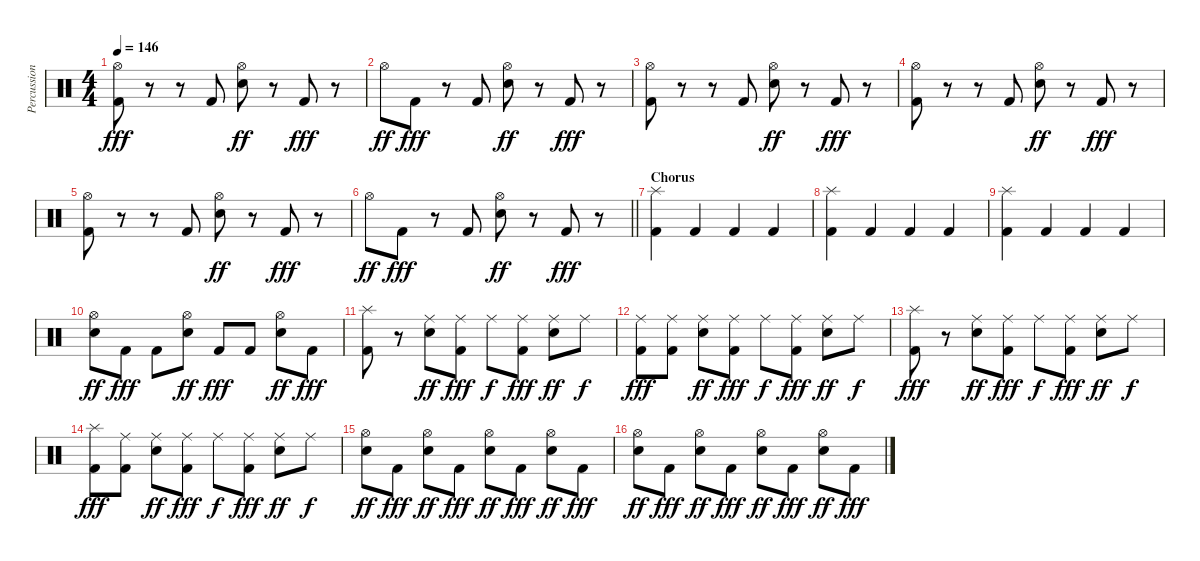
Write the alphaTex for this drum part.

\track ("Percussions" "Percussion") {instrument percussion}
\staff {score}
\articulation defaults
\ts (4 4)
\tempo 146
\clef neutral
\ks c
("Hi-Hat (open)" "Kick (hit) 2").8{dy fff} r.8 r.8 "Kick (hit) 2".8 ("Hi-Hat (open)" "Snare (hit) 2").8{dy ff} r.8 "Kick (hit) 2".8{dy fff} r.8 |
"Hi-Hat (open)".8{dy ff} "Kick (hit) 2".8{dy fff} r.8 "Kick (hit) 2".8 ("Hi-Hat (open)" "Snare (hit) 2").8{dy ff} r.8 "Kick (hit) 2".8{dy fff} r.8 |
("Hi-Hat (open)" "Kick (hit) 2").8 r.8 r.8 "Kick (hit) 2".8 ("Hi-Hat (open)" "Snare (hit) 2").8{dy ff} r.8 "Kick (hit) 2".8{dy fff} r.8 |
("Hi-Hat (open)" "Kick (hit) 2").8 r.8 r.8 "Kick (hit) 2".8 ("Hi-Hat (open)" "Snare (hit) 2").8{dy ff} r.8 "Kick (hit) 2".8{dy fff} r.8 |
("Hi-Hat (open)" "Kick (hit) 2").8 r.8 r.8 "Kick (hit) 2".8 ("Hi-Hat (open)" "Snare (hit) 2").8{dy ff} r.8 "Kick (hit) 2".8{dy fff} r.8 |
\barLineRight lightlight "Hi-Hat (open)".8{dy ff} "Kick (hit) 2".8{dy fff}
r.8 "Kick (hit) 2".8 ("Hi-Hat (open)" "Snare (hit) 2").8{dy ff} r.8 "Kick (hit) 2".8{dy fff} r.8 |
\section ("" "Chorus")
("Splash (hit)" "Kick (hit) 2").4 "Kick (hit) 2".4 "Kick (hit) 2".4 "Kick (hit) 2".4 |
("Splash (hit)" "Kick (hit) 2").4 "Kick (hit) 2".4 "Kick (hit) 2".4 "Kick (hit) 2".4 |
("Splash (hit)" "Kick (hit) 2").4 "Kick (hit) 2".4 "Kick (hit) 2".4 "Kick (hit) 2".4 |
("Hi-Hat (open)" "Snare (hit) 2").8{dy ff} "Kick (hit) 2".8{dy fff} "Kick (hit) 2".8 ("Hi-Hat (open)" "Snare (hit) 2").8{dy ff} "Kick (hit) 2".8{dy fff} "Kick (hit) 2".8 ("Hi-Hat (open)" "Snare (hit) 2").8{dy ff} "Kick (hit) 2".8{dy fff} |
("Splash (hit)" "Kick (hit) 2").8 r.8 ("Ride (middle)" "Snare (hit) 2").8{dy ff} ("Ride (middle)" "Kick (hit) 2").8{dy fff} "Ride (middle)".8{dy f} ("Ride (middle)" "Kick (hit) 2").8{dy fff} ("Ride (middle)" "Snare (hit) 2").8{dy ff} "Ride (middle)".8{dy f} |
("Ride (middle)" "Kick (hit) 2").8{dy fff} ("Ride (middle)" "Kick (hit) 2").8 ("Ride (middle)" "Snare (hit) 2").8{dy ff} ("Ride (middle)" "Kick (hit) 2").8{dy fff} "Ride (middle)".8{dy f} ("Ride (middle)" "Kick (hit) 2").8{dy fff} ("Ride (middle)" "Snare (hit) 2").8{dy ff} "Ride (middle)".8{dy f} |
("Splash (hit)" "Kick (hit) 2").8{dy fff} r.8 ("Ride (middle)" "Snare (hit) 2").8{dy ff} ("Ride (middle)" "Kick (hit) 2").8{dy fff} "Ride (middle)".8{dy f} ("Ride (middle)" "Kick (hit) 2").8{dy fff} ("Ride (middle)" "Snare (hit) 2").8{dy ff} "Ride (middle)".8{dy f} |
("Splash (hit)" "Kick (hit) 2").8{dy fff} ("Ride (middle)" "Kick (hit) 2").8 ("Ride (middle)" "Snare (hit) 2").8{dy ff} ("Ride (middle)" "Kick (hit) 2").8{dy fff} "Ride (middle)".8{dy f} ("Ride (middle)" "Kick (hit) 2").8{dy fff} ("Ride (middle)" "Snare (hit) 2").8{dy ff} "Ride (middle)".8{dy f} |
("Hi-Hat (open)" "Snare (hit) 2").8{dy ff} "Kick (hit) 2".8{dy fff} ("Hi-Hat (open)" "Snare (hit) 2").8{dy ff} "Kick (hit) 2".8{dy fff} ("Hi-Hat (open)" "Snare (hit) 2").8{dy ff} "Kick (hit) 2".8{dy fff} ("Hi-Hat (open)" "Snare (hit) 2").8{dy ff} "Kick (hit) 2".8{dy fff} |
("Hi-Hat (open)" "Snare (hit) 2").8{dy ff} "Kick (hit) 2".8{dy fff} ("Hi-Hat (open)" "Snare (hit) 2").8{dy ff} "Kick (hit) 2".8{dy fff} ("Hi-Hat (open)" "Snare (hit) 2").8{dy ff} "Kick (hit) 2".8{dy fff} ("Hi-Hat (open)" "Snare (hit) 2").8{dy ff} "Kick (hit) 2".8{dy fff}
